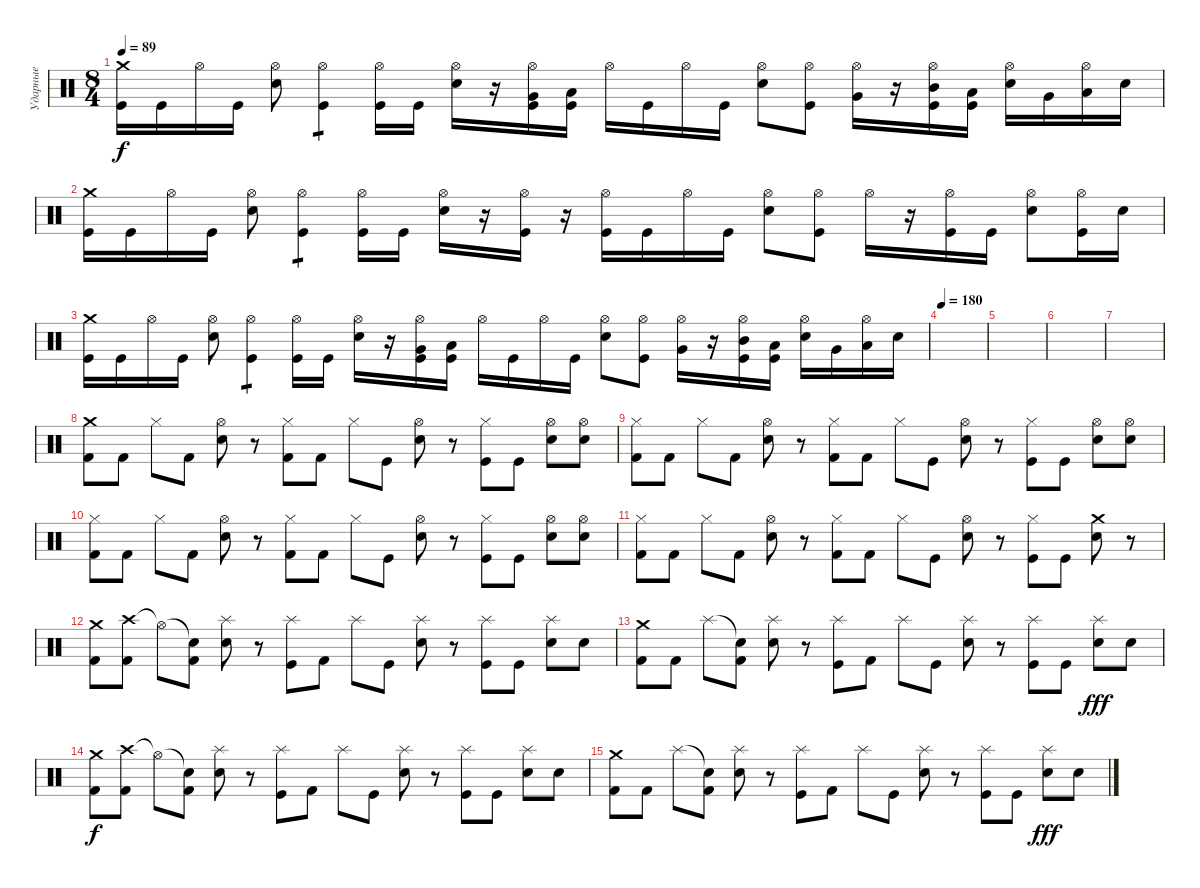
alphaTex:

\track ("Ударные" "Ударные") {instrument percussion}
\staff {score}
\articulation defaults
\ts (8 4)
\tempo 89
\clef neutral
\ks c
("Crash medium (hit)" "Kick (hit)").16{dy f} "Kick (hit)".16 "Hi-Hat (open)".16 "Kick (hit)".16 ("Hi-Hat (open)" "Electric Snare (hit)").8 ("Hi-Hat (open)" "Kick (hit)").4{tp 1} ("Hi-Hat (open)" "Kick (hit)").16 "Kick (hit)".16 ("Hi-Hat (open)" "Electric Snare (hit)").16 r.16 ("Hi-Hat (open)" "Very Low Tom (hit)" "Kick (hit)").16 ("Low Floor Tom (hit)" "Kick (hit)").16 "Hi-Hat (open)".16 "Kick (hit)".16 "Hi-Hat (open)".16 "Kick (hit)".16 ("Hi-Hat (open)" "Electric Snare (hit)").8 ("Hi-Hat (open)" "Kick (hit)").8 ("Hi-Hat (open)" "Very Low Tom (hit)").16 r.16 ("Hi-Hat (open)" "Mid Tom (hit)" "Kick (hit)").16 ("Low Tom (hit)" "Kick (hit)").16 ("Hi-Hat (open)" "Electric Snare (hit)").16 "Very Low Tom (hit)".16 ("Hi-Hat (open)" "Low Floor Tom (hit)").16 "Electric Snare (hit)".16 |
("Crash medium (hit)" "Kick (hit)").16 "Kick (hit)".16 "Hi-Hat (open)".16 "Kick (hit)".16 ("Hi-Hat (open)" "Electric Snare (hit)").8 ("Hi-Hat (open)" "Kick (hit)").4{tp 1} ("Hi-Hat (open)" "Kick (hit)").16 "Kick (hit)".16 ("Hi-Hat (open)" "Electric Snare (hit)").16 r.16 ("Hi-Hat (open)" "Kick (hit)").16 r.16 ("Hi-Hat (open)" "Kick (hit)").16 "Kick (hit)".16 "Hi-Hat (open)".16 "Kick (hit)".16 ("Hi-Hat (open)" "Electric Snare (hit)").8 ("Hi-Hat (open)" "Kick (hit)").8 "Hi-Hat (open)".16 r.16 ("Hi-Hat (open)" "Kick (hit)").16 "Kick (hit)".16 ("Hi-Hat (open)" "Electric Snare (hit)").8 ("Hi-Hat (open)" "Kick (hit)").16 "Electric Snare (hit)".16 |
("Crash medium (hit)" "Kick (hit)").16 "Kick (hit)".16 "Hi-Hat (open)".16 "Kick (hit)".16 ("Hi-Hat (open)" "Electric Snare (hit)").8 ("Hi-Hat (open)" "Kick (hit)").4{tp 1} ("Hi-Hat (open)" "Kick (hit)").16 "Kick (hit)".16 ("Hi-Hat (open)" "Electric Snare (hit)").16 r.16 ("Hi-Hat (open)" "Very Low Tom (hit)" "Kick (hit)").16 ("Low Floor Tom (hit)" "Kick (hit)").16 "Hi-Hat (open)".16 "Kick (hit)".16 "Hi-Hat (open)".16 "Kick (hit)".16 ("Hi-Hat (open)" "Electric Snare (hit)").8 ("Hi-Hat (open)" "Kick (hit)").8 ("Hi-Hat (open)" "Very Low Tom (hit)").16 r.16 ("Hi-Hat (open)" "Mid Tom (hit)" "Kick (hit)").16 ("Low Tom (hit)" "Kick (hit)").16 ("Hi-Hat (open)" "Electric Snare (hit)").16 "Very Low Tom (hit)".16 ("Hi-Hat (open)" "Low Floor Tom (hit)").16 "Electric Snare (hit)".16 |
\tempo 180
|
|
|
|
("Crash medium (hit)" "Kick (hit) 2").8 "Kick (hit) 2".8 "Hi-Hat (closed)".8 "Kick (hit) 2".8 ("Hi-Hat (open)" "Electric Snare (hit)").8 r.8 ("Hi-Hat (closed)" "Kick (hit) 2").8 "Kick (hit) 2".8 "Hi-Hat (closed)".8 "Kick (hit)".8 ("Hi-Hat (open)" "Snare (hit) 2").8 r.8 ("Hi-Hat (closed)" "Kick (hit)").8 "Kick (hit)".8 ("Hi-Hat (open)" "Electric Snare (hit)").8 ("Hi-Hat (open)" "Electric Snare (hit)").8 |
("Hi-Hat (closed)" "Kick (hit) 2").8 "Kick (hit) 2".8 "Hi-Hat (closed)".8 "Kick (hit) 2".8 ("Hi-Hat (open)" "Electric Snare (hit)").8 r.8 ("Hi-Hat (closed)" "Kick (hit) 2").8 "Kick (hit) 2".8 "Hi-Hat (closed)".8 "Kick (hit)".8 ("Hi-Hat (open)" "Snare (hit) 2").8 r.8 ("Hi-Hat (closed)" "Kick (hit)").8 "Kick (hit)".8 ("Hi-Hat (open)" "Electric Snare (hit)").8 ("Hi-Hat (open)" "Electric Snare (hit)").8 |
("Hi-Hat (closed)" "Kick (hit) 2").8 "Kick (hit) 2".8 "Hi-Hat (closed)".8 "Kick (hit) 2".8 ("Hi-Hat (open)" "Electric Snare (hit)").8 r.8 ("Hi-Hat (closed)" "Kick (hit) 2").8 "Kick (hit) 2".8 "Hi-Hat (closed)".8 "Kick (hit)".8 ("Hi-Hat (open)" "Snare (hit) 2").8 r.8 ("Hi-Hat (closed)" "Kick (hit)").8 "Kick (hit)".8 ("Hi-Hat (open)" "Electric Snare (hit)").8 ("Hi-Hat (open)" "Electric Snare (hit)").8 |
("Hi-Hat (closed)" "Kick (hit) 2").8 "Kick (hit) 2".8 "Hi-Hat (closed)".8 "Kick (hit) 2".8 ("Hi-Hat (open)" "Electric Snare (hit)").8 r.8 ("Hi-Hat (closed)" "Kick (hit) 2").8 "Kick (hit) 2".8 "Hi-Hat (closed)".8 "Kick (hit)".8 ("Hi-Hat (open)" "Snare (hit) 2").8 r.8 ("Hi-Hat (closed)" "Kick (hit)").8 "Kick (hit)".8 ("Crash medium (hit)" "Electric Snare (hit)").8 r.8 |
("Crash medium (hit)" "Kick (hit) 2").8 ("Crash high (hit)" "Kick (hit) 2").8 "Hi-Hat (open)"{t}.8 ("Snare (hit)"{t} "Kick (hit) 2").8 ("Splash (hit)" "Electric Snare (hit)").8 r.8 ("Splash (hit)" "Kick (hit)").8 "Kick (hit) 2".8 "Splash (hit)".8 "Kick (hit)".8 ("Splash (hit)" "Snare (hit) 2").8 r.8 ("Splash (hit)" "Kick (hit)").8 "Kick (hit)".8 ("Splash (hit)" "Electric Snare (hit)").8 "Electric Snare (hit)".8 |
("Crash medium (hit)" "Kick (hit) 2").8 "Kick (hit) 2".8 "Splash (hit)".8 ("Snare (hit)"{t} "Kick (hit) 2").8 ("Splash (hit)" "Electric Snare (hit)").8 r.8 ("Splash (hit)" "Kick (hit)").8 "Kick (hit) 2".8 "Splash (hit)".8 "Kick (hit)".8 ("Splash (hit)" "Snare (hit) 2").8 r.8 ("Splash (hit)" "Kick (hit)").8 "Kick (hit)".8 ("Splash (hit)" "Electric Snare (hit)").8{dy fff} "Electric Snare (hit)".8 |
("Crash medium (hit)" "Kick (hit) 2").8{dy f} ("Crash high (hit)" "Kick (hit) 2").8 "Hi-Hat (open)"{t}.8 ("Snare (hit)"{t} "Kick (hit) 2").8 ("Splash (hit)" "Electric Snare (hit)").8 r.8 ("Splash (hit)" "Kick (hit)").8 "Kick (hit) 2".8 "Splash (hit)".8 "Kick (hit)".8 ("Splash (hit)" "Snare (hit) 2").8 r.8 ("Splash (hit)" "Kick (hit)").8 "Kick (hit)".8 ("Splash (hit)" "Electric Snare (hit)").8 "Electric Snare (hit)".8 |
("Crash medium (hit)" "Kick (hit) 2").8 "Kick (hit) 2".8 "Splash (hit)".8 ("Snare (hit)"{t} "Kick (hit) 2").8 ("Splash (hit)" "Electric Snare (hit)").8 r.8 ("Splash (hit)" "Kick (hit)").8 "Kick (hit) 2".8 "Splash (hit)".8 "Kick (hit)".8 ("Splash (hit)" "Snare (hit) 2").8 r.8 ("Splash (hit)" "Kick (hit)").8 "Kick (hit)".8 ("Splash (hit)" "Electric Snare (hit)").8{dy fff} "Electric Snare (hit)".8
